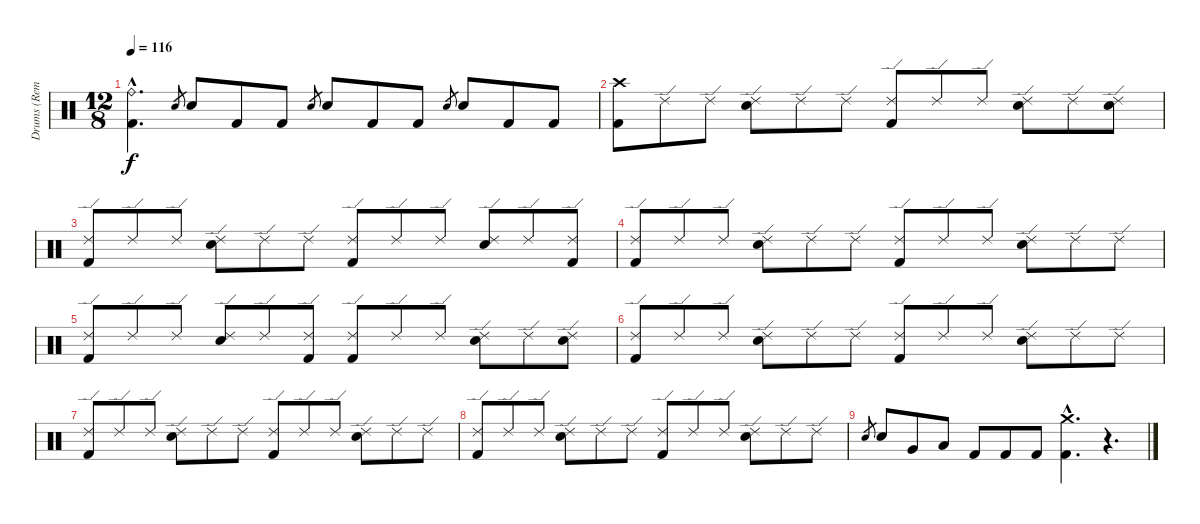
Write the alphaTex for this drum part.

\track ("Drums (Remu Aaltonen)" "Drums (Rem") {instrument percussion}
\staff {score}
\articulation defaults
\ts (12 8)
\tempo 116
\clef neutral
\ks c
("Ride (bell)"{hac} "Kick (hit) 2"{hac}).4{d dy f} "Snare (hit) 2".8{gr} "Snare (hit) 2".8 "Kick (hit) 2".8 "Kick (hit) 2".8 "Snare (hit) 2".8{gr} "Snare (hit) 2".8 "Kick (hit) 2".8 "Kick (hit) 2".8 "Snare (hit) 2".8{gr} "Snare (hit) 2".8 "Kick (hit) 2".8 "Kick (hit) 2".8 |
("Crash high (hit)" "Kick (hit) 2").8 "Ride (edge) 2".8 "Ride (edge) 2".8 ("Ride (edge) 2" "Snare (hit) 2").8 "Ride (edge) 2".8 "Ride (edge) 2".8 ("Ride (edge) 2" "Kick (hit) 2").8 "Ride (edge) 2".8 "Ride (edge) 2".8 ("Ride (edge) 2" "Snare (hit) 2").8 "Ride (edge) 2".8 ("Ride (edge) 2" "Snare (hit) 2").8 |
("Ride (edge) 2" "Kick (hit) 2").8 "Ride (edge) 2".8 "Ride (edge) 2".8 ("Ride (edge) 2" "Snare (hit) 2").8 "Ride (edge) 2".8 "Ride (edge) 2".8 ("Ride (edge) 2" "Kick (hit) 2").8 "Ride (edge) 2".8 "Ride (edge) 2".8 ("Ride (edge) 2" "Snare (hit) 2").8 "Ride (edge) 2".8 ("Ride (edge) 2" "Kick (hit) 2").8 |
("Ride (edge) 2" "Kick (hit) 2").8 "Ride (edge) 2".8 "Ride (edge) 2".8 ("Ride (edge) 2" "Snare (hit) 2").8 "Ride (edge) 2".8 "Ride (edge) 2".8 ("Ride (edge) 2" "Kick (hit) 2").8 "Ride (edge) 2".8 "Ride (edge) 2".8 ("Ride (edge) 2" "Snare (hit) 2").8 "Ride (edge) 2".8 "Ride (edge) 2".8 |
("Ride (edge) 2" "Kick (hit) 2").8 "Ride (edge) 2".8 "Ride (edge) 2".8 ("Ride (edge) 2" "Snare (hit) 2").8 "Ride (edge) 2".8 ("Ride (edge) 2" "Kick (hit) 2").8 ("Ride (edge) 2" "Kick (hit) 2").8 "Ride (edge) 2".8 "Ride (edge) 2".8 ("Ride (edge) 2" "Snare (hit) 2").8 "Ride (edge) 2".8 ("Ride (edge) 2" "Snare (hit) 2").8 |
("Ride (edge) 2" "Kick (hit) 2").8 "Ride (edge) 2".8 "Ride (edge) 2".8 ("Ride (edge) 2" "Snare (hit) 2").8 "Ride (edge) 2".8 "Ride (edge) 2".8 ("Ride (edge) 2" "Kick (hit) 2").8 "Ride (edge) 2".8 "Ride (edge) 2".8 ("Ride (edge) 2" "Snare (hit) 2").8 "Ride (edge) 2".8 "Ride (edge) 2".8 |
("Ride (edge) 2" "Kick (hit) 2").8 "Ride (edge) 2".8 "Ride (edge) 2".8 ("Ride (edge) 2" "Snare (hit) 2").8 "Ride (edge) 2".8 "Ride (edge) 2".8 ("Ride (edge) 2" "Kick (hit) 2").8 "Ride (edge) 2".8 "Ride (edge) 2".8 ("Ride (edge) 2" "Snare (hit) 2").8 "Ride (edge) 2".8 "Ride (edge) 2".8 |
("Ride (edge) 2" "Kick (hit) 2").8 "Ride (edge) 2".8 "Ride (edge) 2".8 ("Ride (edge) 2" "Snare (hit) 2").8 "Ride (edge) 2".8 "Ride (edge) 2".8 ("Ride (edge) 2" "Kick (hit) 2").8 "Ride (edge) 2".8 "Ride (edge) 2".8 ("Ride (edge) 2" "Snare (hit) 2").8 "Ride (edge) 2".8 "Ride (edge) 2".8 |
"Snare (hit) 2".8{gr} "Snare (hit) 2".8 "Very Low Tom (hit)".8 "Low Floor Tom (hit)".8 "Kick (hit) 2".8 "Kick (hit) 2".8 "Kick (hit) 2".8 ("Crash medium (hit)"{hac} "Kick (hit) 2"{hac}).4{d} r.4{d}
